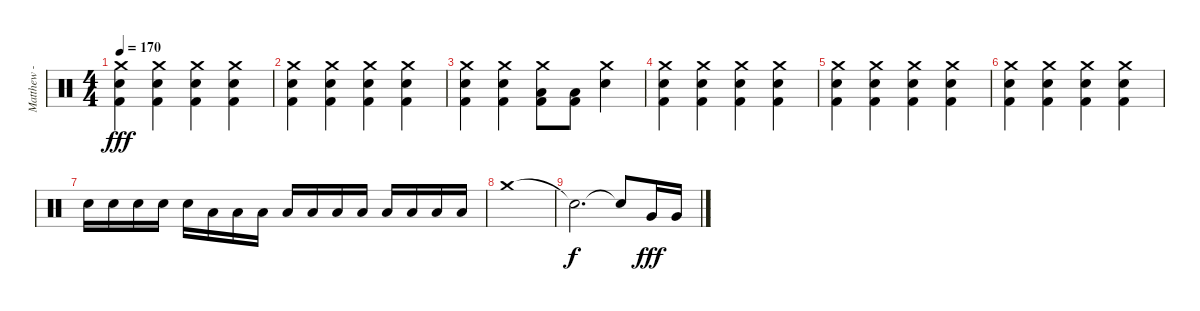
\track ("Matthew - Drums" "Matthew - ") {instrument percussion}
\staff {score}
\articulation defaults
\ts (4 4)
\tempo 170
\clef neutral
\ks c
("Crash medium (hit)" "Electric Snare (hit)" "Kick (hit) 2").4{dy fff} ("Crash medium (hit)" "Electric Snare (hit)" "Kick (hit) 2").4 ("Crash medium (hit)" "Electric Snare (hit)" "Kick (hit) 2").4 ("Crash medium (hit)" "Electric Snare (hit)" "Kick (hit) 2").4 |
("Crash medium (hit)" "Electric Snare (hit)" "Kick (hit) 2").4 ("Crash medium (hit)" "Electric Snare (hit)" "Kick (hit) 2").4 ("Crash medium (hit)" "Electric Snare (hit)" "Kick (hit) 2").4 ("Crash medium (hit)" "Electric Snare (hit)" "Kick (hit) 2").4 |
("Crash medium (hit)" "Electric Snare (hit)" "Kick (hit) 2").4 ("Crash medium (hit)" "Electric Snare (hit)" "Kick (hit) 2").4 ("Crash medium (hit)" "Low Floor Tom (hit)" "Kick (hit) 2").8 ("Low Floor Tom (hit)" "Kick (hit) 2").8 ("Crash medium (hit)" "Electric Snare (hit)").4 |
("Crash medium (hit)" "Electric Snare (hit)" "Kick (hit) 2").4 ("Crash medium (hit)" "Electric Snare (hit)" "Kick (hit) 2").4 ("Crash medium (hit)" "Electric Snare (hit)" "Kick (hit) 2").4 ("Crash medium (hit)" "Electric Snare (hit)" "Kick (hit) 2").4 |
("Crash medium (hit)" "Electric Snare (hit)" "Kick (hit) 2").4 ("Crash medium (hit)" "Electric Snare (hit)" "Kick (hit) 2").4 ("Crash medium (hit)" "Electric Snare (hit)" "Kick (hit) 2").4 ("Crash medium (hit)" "Electric Snare (hit)" "Kick (hit) 2").4 |
("Crash medium (hit)" "Electric Snare (hit)" "Kick (hit) 2").4 ("Crash medium (hit)" "Electric Snare (hit)" "Kick (hit) 2").4 ("Crash medium (hit)" "Electric Snare (hit)" "Kick (hit) 2").4 ("Crash medium (hit)" "Electric Snare (hit)" "Kick (hit) 2").4 |
"Electric Snare (hit)".16 "Electric Snare (hit)".16 "Electric Snare (hit)".16 "Electric Snare (hit)".16 "Electric Snare (hit)".16 "Low Tom (hit)".16 "Low Tom (hit)".16 "Low Tom (hit)".16 "Low Tom (hit)".16 "Low Floor Tom (hit)".16 "Low Floor Tom (hit)".16 "Low Floor Tom (hit)".16 "Low Floor Tom (hit)".16 "Low Floor Tom (hit)".16 "Low Floor Tom (hit)".16 "Low Floor Tom (hit)".16 |
"Crash medium (hit)".1 |
"Snare (hit)"{t}.2{d dy f} "Snare (hit)"{t}.8 "Very Low Tom (hit)".16{dy fff} "Very Low Tom (hit)".16
